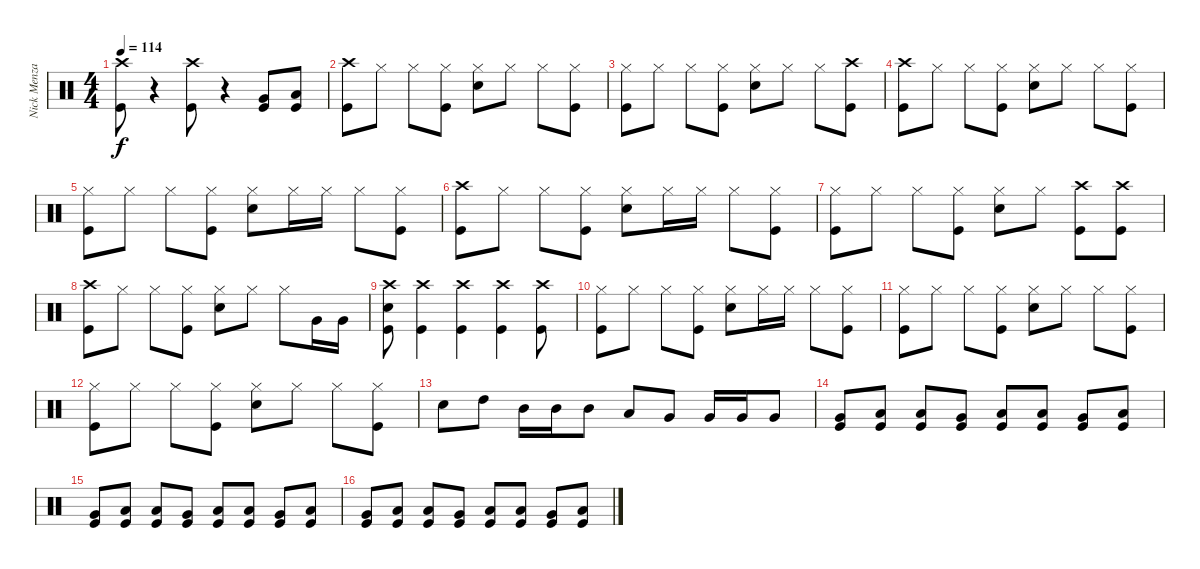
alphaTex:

\track ("Nick Menza" "Nick Menza") {instrument percussion}
\staff {score}
\articulation defaults
\ts (4 4)
\tempo 114
\clef neutral
\ks c
("Crash high (hit)" "Kick (hit)").8{dy f} r.4 ("Crash high (hit)" "Kick (hit)").8 r.4 ("Very Low Tom (hit)" "Kick (hit)").8 ("Low Floor Tom (hit)" "Kick (hit)").8 |
("Crash high (hit)" "Kick (hit)").8 "Hi-Hat (closed)".8 "Hi-Hat (closed)".8 ("Hi-Hat (closed)" "Kick (hit)").8 ("Hi-Hat (closed)" "Snare (hit) 2").8 "Hi-Hat (closed)".8 "Hi-Hat (closed)".8 ("Hi-Hat (closed)" "Kick (hit)").8 |
("Hi-Hat (closed)" "Kick (hit)").8 "Hi-Hat (closed)".8 "Hi-Hat (closed)".8 ("Hi-Hat (closed)" "Kick (hit)").8 ("Hi-Hat (closed)" "Snare (hit) 2").8 "Hi-Hat (closed)".8 "Hi-Hat (closed)".8 ("Crash high (hit)" "Kick (hit)").8 |
("Crash high (hit)" "Kick (hit)").8 "Hi-Hat (closed)".8 "Hi-Hat (closed)".8 ("Hi-Hat (closed)" "Kick (hit)").8 ("Hi-Hat (closed)" "Snare (hit) 2").8 "Hi-Hat (closed)".8 "Hi-Hat (closed)".8 ("Hi-Hat (closed)" "Kick (hit)").8 |
("Hi-Hat (closed)" "Kick (hit)").8 "Hi-Hat (closed)".8 "Hi-Hat (closed)".8 ("Hi-Hat (closed)" "Kick (hit)").8 ("Hi-Hat (closed)" "Snare (hit) 2").8 "Hi-Hat (closed)".16 "Hi-Hat (closed)".16 "Hi-Hat (closed)".8 ("Hi-Hat (closed)" "Kick (hit)").8 |
("Crash high (hit)" "Kick (hit)").8 "Hi-Hat (closed)".8 "Hi-Hat (closed)".8 ("Hi-Hat (closed)" "Kick (hit)").8 ("Hi-Hat (closed)" "Snare (hit) 2").8 "Hi-Hat (closed)".16 "Hi-Hat (closed)".16 "Hi-Hat (closed)".8 ("Hi-Hat (closed)" "Kick (hit)").8 |
("Hi-Hat (closed)" "Kick (hit)").8 "Hi-Hat (closed)".8 "Hi-Hat (closed)".8 ("Hi-Hat (closed)" "Kick (hit)").8 ("Hi-Hat (closed)" "Snare (hit) 2").8 "Hi-Hat (closed)".8 ("Crash high (hit)" "Kick (hit)").8 ("Crash high (hit)" "Kick (hit)").8 |
("Crash high (hit)" "Kick (hit)").8 "Hi-Hat (closed)".8 "Hi-Hat (closed)".8 ("Hi-Hat (closed)" "Kick (hit)").8 ("Hi-Hat (closed)" "Snare (hit) 2").8 "Hi-Hat (closed)".8 "Hi-Hat (closed)".8 "Very Low Tom (hit)".16 "Very Low Tom (hit)".16 |
("Crash high (hit)" "Snare (hit) 2" "Kick (hit)").8 ("Crash high (hit)" "Kick (hit)").4 ("Crash high (hit)" "Kick (hit)").4 ("Crash high (hit)" "Kick (hit)").4 ("Crash high (hit)" "Kick (hit)").8 |
("Hi-Hat (closed)" "Kick (hit)").8 "Hi-Hat (closed)".8 "Hi-Hat (closed)".8 ("Hi-Hat (closed)" "Kick (hit)").8 ("Hi-Hat (closed)" "Snare (hit) 2").8 "Hi-Hat (closed)".16 "Hi-Hat (closed)".16 "Hi-Hat (closed)".8 ("Hi-Hat (closed)" "Kick (hit)").8 |
("Hi-Hat (closed)" "Kick (hit)").8 "Hi-Hat (closed)".8 "Hi-Hat (closed)".8 ("Hi-Hat (closed)" "Kick (hit)").8 ("Hi-Hat (closed)" "Snare (hit) 2").8 "Hi-Hat (closed)".8 "Hi-Hat (closed)".8 ("Hi-Hat (closed)" "Kick (hit)").8 |
("Hi-Hat (closed)" "Kick (hit)").8 "Hi-Hat (closed)".8 "Hi-Hat (closed)".8 ("Hi-Hat (closed)" "Kick (hit)").8 ("Hi-Hat (closed)" "Snare (hit) 2").8 "Hi-Hat (closed)".8 "Hi-Hat (closed)".8 ("Hi-Hat (closed)" "Kick (hit)").8 |
"Snare (hit) 2".8 "High Tom (hit)".8 "Mid Tom (hit)".16 "Mid Tom (hit)".16 "Mid Tom (hit)".8 "Low Tom (hit)".8 "Very Low Tom (hit)".8 "Very Low Tom (hit)".16 "Very Low Tom (hit)".16 "Very Low Tom (hit)".8 |
("Very Low Tom (hit)" "Kick (hit)").8 ("Low Floor Tom (hit)" "Kick (hit)").8 ("Low Floor Tom (hit)" "Kick (hit)").8 ("Very Low Tom (hit)" "Kick (hit)").8 ("Low Floor Tom (hit)" "Kick (hit)").8 ("Low Floor Tom (hit)" "Kick (hit)").8 ("Very Low Tom (hit)" "Kick (hit)").8 ("Low Floor Tom (hit)" "Kick (hit)").8 |
("Very Low Tom (hit)" "Kick (hit)").8 ("Low Floor Tom (hit)" "Kick (hit)").8 ("Low Floor Tom (hit)" "Kick (hit)").8 ("Very Low Tom (hit)" "Kick (hit)").8 ("Low Floor Tom (hit)" "Kick (hit)").8 ("Low Floor Tom (hit)" "Kick (hit)").8 ("Very Low Tom (hit)" "Kick (hit)").8 ("Low Floor Tom (hit)" "Kick (hit)").8 |
("Very Low Tom (hit)" "Kick (hit)").8 ("Low Floor Tom (hit)" "Kick (hit)").8 ("Low Floor Tom (hit)" "Kick (hit)").8 ("Very Low Tom (hit)" "Kick (hit)").8 ("Low Floor Tom (hit)" "Kick (hit)").8 ("Low Floor Tom (hit)" "Kick (hit)").8 ("Very Low Tom (hit)" "Kick (hit)").8 ("Low Floor Tom (hit)" "Kick (hit)").8
